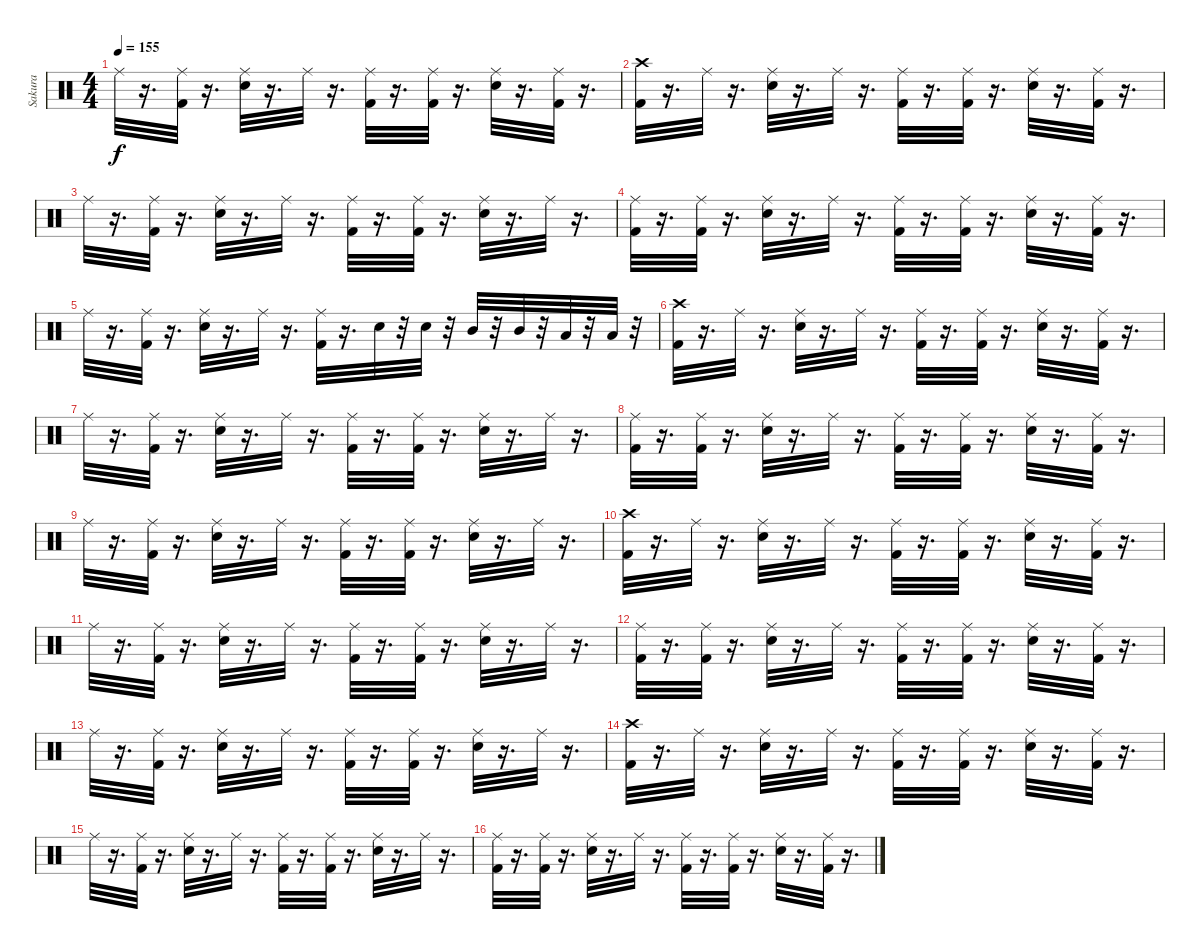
\track ("Sakura" "Sakura") {instrument percussion}
\staff {score}
\articulation defaults
\ts (4 4)
\tempo 155
\clef neutral
\ks c "Ride (middle)".32{dy f}
r.16{d} ("Ride (middle)" "Kick (hit) 2").32 r.16{d} ("Ride (middle)" "Snare (hit) 2").32 r.16{d} "Ride (middle)".32 r.16{d} ("Ride (middle)" "Kick (hit) 2").32 r.16{d} ("Ride (middle)" "Kick (hit) 2").32 r.16{d} ("Ride (middle)" "Snare (hit) 2").32 r.16{d} ("Ride (middle)" "Kick (hit) 2").32 r.16{d} |
("Crash high (hit)" "Kick (hit) 2").32 r.16{d} "Ride (middle)".32 r.16{d} ("Ride (middle)" "Snare (hit) 2").32 r.16{d} "Ride (middle)".32 r.16{d} ("Ride (middle)" "Kick (hit) 2").32 r.16{d} ("Ride (middle)" "Kick (hit) 2").32 r.16{d} ("Ride (middle)" "Snare (hit) 2").32 r.16{d} ("Ride (middle)" "Kick (hit) 2").32 r.16{d} |
"Ride (middle)".32 r.16{d} ("Ride (middle)" "Kick (hit) 2").32 r.16{d} ("Ride (middle)" "Snare (hit) 2").32 r.16{d} "Ride (middle)".32 r.16{d} ("Ride (middle)" "Kick (hit) 2").32 r.16{d} ("Ride (middle)" "Kick (hit) 2").32 r.16{d} ("Ride (middle)" "Snare (hit) 2").32 r.16{d} "Ride (middle)".32 r.16{d} |
("Ride (middle)" "Kick (hit) 2").32 r.16{d} ("Ride (middle)" "Kick (hit) 2").32 r.16{d} ("Ride (middle)" "Snare (hit) 2").32 r.16{d} "Ride (middle)".32 r.16{d} ("Ride (middle)" "Kick (hit) 2").32 r.16{d} ("Ride (middle)" "Kick (hit) 2").32 r.16{d} ("Ride (middle)" "Snare (hit) 2").32 r.16{d} ("Ride (middle)" "Kick (hit) 2").32 r.16{d} |
"Ride (middle)".32 r.16{d} ("Ride (middle)" "Kick (hit) 2").32 r.16{d} ("Ride (middle)" "Snare (hit) 2").32 r.16{d} "Ride (middle)".32 r.16{d} ("Ride (middle)" "Kick (hit) 2").32 r.16{d} "Snare (hit) 2".32 r.32 "Snare (hit) 2".32 r.32 "Mid Tom (hit)".32 r.32 "Mid Tom (hit)".32 r.32 "Low Tom (hit)".32 r.32 "Low Tom (hit)".32 r.32 |
("Crash high (hit)" "Kick (hit) 2").32 r.16{d} "Ride (middle)".32 r.16{d} ("Ride (middle)" "Snare (hit) 2").32 r.16{d} "Ride (middle)".32 r.16{d} ("Ride (middle)" "Kick (hit) 2").32 r.16{d} ("Ride (middle)" "Kick (hit) 2").32 r.16{d} ("Ride (middle)" "Snare (hit) 2").32 r.16{d} ("Ride (middle)" "Kick (hit) 2").32 r.16{d} |
"Ride (middle)".32 r.16{d} ("Ride (middle)" "Kick (hit) 2").32 r.16{d} ("Ride (middle)" "Snare (hit) 2").32 r.16{d} "Ride (middle)".32 r.16{d} ("Ride (middle)" "Kick (hit) 2").32 r.16{d} ("Ride (middle)" "Kick (hit) 2").32 r.16{d} ("Ride (middle)" "Snare (hit) 2").32 r.16{d} "Ride (middle)".32 r.16{d} |
("Ride (middle)" "Kick (hit) 2").32 r.16{d} ("Ride (middle)" "Kick (hit) 2").32 r.16{d} ("Ride (middle)" "Snare (hit) 2").32 r.16{d} "Ride (middle)".32 r.16{d} ("Ride (middle)" "Kick (hit) 2").32 r.16{d} ("Ride (middle)" "Kick (hit) 2").32 r.16{d} ("Ride (middle)" "Snare (hit) 2").32 r.16{d} ("Ride (middle)" "Kick (hit) 2").32 r.16{d} |
"Ride (middle)".32 r.16{d} ("Ride (middle)" "Kick (hit) 2").32 r.16{d} ("Ride (middle)" "Snare (hit) 2").32 r.16{d} "Ride (middle)".32 r.16{d} ("Ride (middle)" "Kick (hit) 2").32 r.16{d} ("Ride (middle)" "Kick (hit) 2").32 r.16{d} ("Ride (middle)" "Snare (hit) 2").32 r.16{d} "Ride (middle)".32 r.16{d} |
("Crash high (hit)" "Kick (hit) 2").32 r.16{d} "Ride (middle)".32 r.16{d} ("Ride (middle)" "Snare (hit) 2").32 r.16{d} "Ride (middle)".32 r.16{d} ("Ride (middle)" "Kick (hit) 2").32 r.16{d} ("Ride (middle)" "Kick (hit) 2").32 r.16{d} ("Ride (middle)" "Snare (hit) 2").32 r.16{d} ("Ride (middle)" "Kick (hit) 2").32 r.16{d} |
"Ride (middle)".32 r.16{d} ("Ride (middle)" "Kick (hit) 2").32 r.16{d} ("Ride (middle)" "Snare (hit) 2").32 r.16{d} "Ride (middle)".32 r.16{d} ("Ride (middle)" "Kick (hit) 2").32 r.16{d} ("Ride (middle)" "Kick (hit) 2").32 r.16{d} ("Ride (middle)" "Snare (hit) 2").32 r.16{d} "Ride (middle)".32 r.16{d} |
("Ride (middle)" "Kick (hit) 2").32 r.16{d} ("Ride (middle)" "Kick (hit) 2").32 r.16{d} ("Ride (middle)" "Snare (hit) 2").32 r.16{d} "Ride (middle)".32 r.16{d} ("Ride (middle)" "Kick (hit) 2").32 r.16{d} ("Ride (middle)" "Kick (hit) 2").32 r.16{d} ("Ride (middle)" "Snare (hit) 2").32 r.16{d} ("Ride (middle)" "Kick (hit) 2").32 r.16{d} |
"Ride (middle)".32 r.16{d} ("Ride (middle)" "Kick (hit) 2").32 r.16{d} ("Ride (middle)" "Snare (hit) 2").32 r.16{d} "Ride (middle)".32 r.16{d} ("Ride (middle)" "Kick (hit) 2").32 r.16{d} ("Ride (middle)" "Kick (hit) 2").32 r.16{d} ("Ride (middle)" "Snare (hit) 2").32 r.16{d} "Ride (middle)".32 r.16{d} |
("Crash high (hit)" "Kick (hit) 2").32 r.16{d} "Ride (middle)".32 r.16{d} ("Ride (middle)" "Snare (hit) 2").32 r.16{d} "Ride (middle)".32 r.16{d} ("Ride (middle)" "Kick (hit) 2").32 r.16{d} ("Ride (middle)" "Kick (hit) 2").32 r.16{d} ("Ride (middle)" "Snare (hit) 2").32 r.16{d} ("Ride (middle)" "Kick (hit) 2").32 r.16{d} |
"Ride (middle)".32 r.16{d} ("Ride (middle)" "Kick (hit) 2").32 r.16{d} ("Ride (middle)" "Snare (hit) 2").32 r.16{d} "Ride (middle)".32 r.16{d} ("Ride (middle)" "Kick (hit) 2").32 r.16{d} ("Ride (middle)" "Kick (hit) 2").32 r.16{d} ("Ride (middle)" "Snare (hit) 2").32 r.16{d} "Ride (middle)".32 r.16{d} |
("Ride (middle)" "Kick (hit) 2").32 r.16{d} ("Ride (middle)" "Kick (hit) 2").32 r.16{d} ("Ride (middle)" "Snare (hit) 2").32 r.16{d} "Ride (middle)".32 r.16{d} ("Ride (middle)" "Kick (hit) 2").32 r.16{d} ("Ride (middle)" "Kick (hit) 2").32 r.16{d} ("Ride (middle)" "Snare (hit) 2").32 r.16{d} ("Ride (middle)" "Kick (hit) 2").32 r.16{d}
